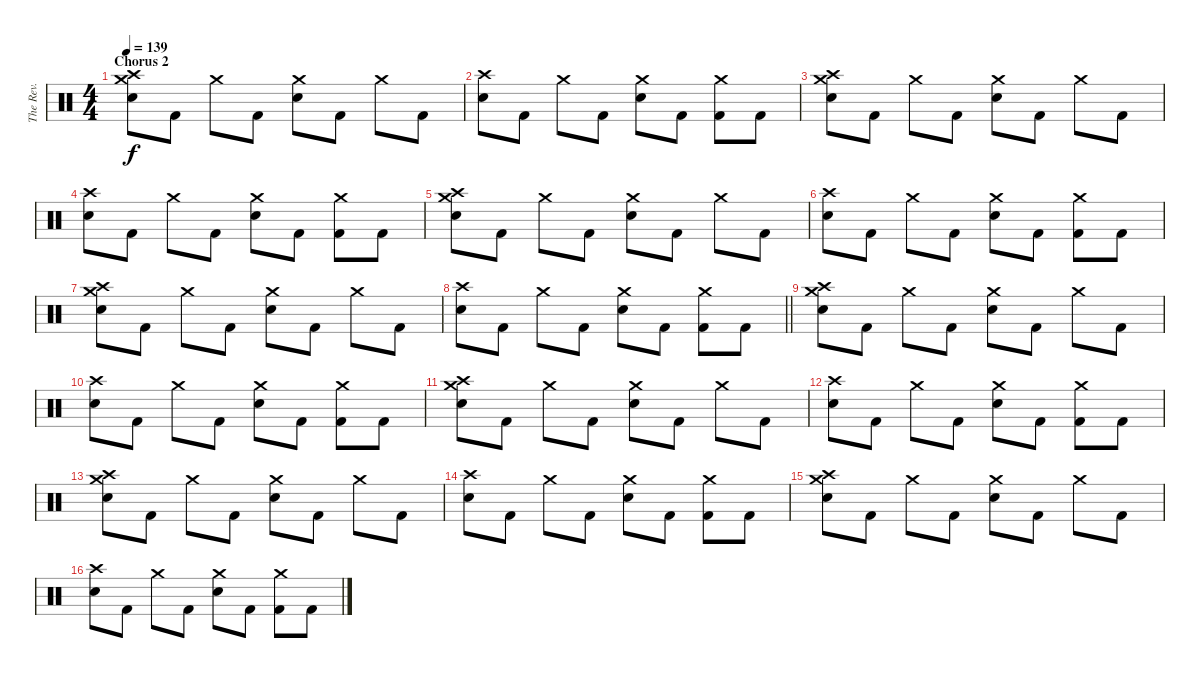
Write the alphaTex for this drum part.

\track ("The Rev." "The Rev.") {instrument percussion}
\staff {score}
\articulation defaults
\ts (4 4)
\section ("" "Chorus 2")
\tempo 139
\clef neutral
\ks c
("Crash high (hit)" "Crash medium (hit)" "Electric Snare (hit)").8{dy f} "Kick (hit) 2".8 "Crash medium (hit)".8 "Kick (hit) 2".8 ("Crash medium (hit)" "Electric Snare (hit)").8 "Kick (hit) 2".8 "Crash medium (hit)".8 "Kick (hit) 2".8 |
("Crash high (hit)" "Electric Snare (hit)").8 "Kick (hit) 2".8 "Crash medium (hit)".8 "Kick (hit) 2".8 ("Crash medium (hit)" "Electric Snare (hit)").8 "Kick (hit) 2".8 ("Crash medium (hit)" "Kick (hit) 2").8 "Kick (hit) 2".8 |
("Crash high (hit)" "Crash medium (hit)" "Electric Snare (hit)").8 "Kick (hit) 2".8 "Crash medium (hit)".8 "Kick (hit) 2".8 ("Crash medium (hit)" "Electric Snare (hit)").8 "Kick (hit) 2".8 "Crash medium (hit)".8 "Kick (hit) 2".8 |
("Crash high (hit)" "Electric Snare (hit)").8 "Kick (hit) 2".8 "Crash medium (hit)".8 "Kick (hit) 2".8 ("Crash medium (hit)" "Electric Snare (hit)").8 "Kick (hit) 2".8 ("Crash medium (hit)" "Kick (hit) 2").8 "Kick (hit) 2".8 |
("Crash high (hit)" "Crash medium (hit)" "Electric Snare (hit)").8 "Kick (hit) 2".8 "Crash medium (hit)".8 "Kick (hit) 2".8 ("Crash medium (hit)" "Electric Snare (hit)").8 "Kick (hit) 2".8 "Crash medium (hit)".8 "Kick (hit) 2".8 |
("Crash high (hit)" "Electric Snare (hit)").8 "Kick (hit) 2".8 "Crash medium (hit)".8 "Kick (hit) 2".8 ("Crash medium (hit)" "Electric Snare (hit)").8 "Kick (hit) 2".8 ("Crash medium (hit)" "Kick (hit) 2").8 "Kick (hit) 2".8 |
("Crash high (hit)" "Crash medium (hit)" "Electric Snare (hit)").8 "Kick (hit) 2".8 "Crash medium (hit)".8 "Kick (hit) 2".8 ("Crash medium (hit)" "Electric Snare (hit)").8 "Kick (hit) 2".8 "Crash medium (hit)".8 "Kick (hit) 2".8 |
\barLineRight lightlight
("Crash high (hit)" "Electric Snare (hit)").8 "Kick (hit) 2".8 "Crash medium (hit)".8 "Kick (hit) 2".8 ("Crash medium (hit)" "Electric Snare (hit)").8 "Kick (hit) 2".8 ("Crash medium (hit)" "Kick (hit) 2").8 "Kick (hit) 2".8 |
("Crash high (hit)" "Crash medium (hit)" "Electric Snare (hit)").8 "Kick (hit) 2".8 "Crash medium (hit)".8 "Kick (hit) 2".8 ("Crash medium (hit)" "Electric Snare (hit)").8 "Kick (hit) 2".8 "Crash medium (hit)".8 "Kick (hit) 2".8 |
("Crash high (hit)" "Electric Snare (hit)").8 "Kick (hit) 2".8 "Crash medium (hit)".8 "Kick (hit) 2".8 ("Crash medium (hit)" "Electric Snare (hit)").8 "Kick (hit) 2".8 ("Crash medium (hit)" "Kick (hit) 2").8 "Kick (hit) 2".8 |
("Crash high (hit)" "Crash medium (hit)" "Electric Snare (hit)").8 "Kick (hit) 2".8 "Crash medium (hit)".8 "Kick (hit) 2".8 ("Crash medium (hit)" "Electric Snare (hit)").8 "Kick (hit) 2".8 "Crash medium (hit)".8 "Kick (hit) 2".8 |
("Crash high (hit)" "Electric Snare (hit)").8 "Kick (hit) 2".8 "Crash medium (hit)".8 "Kick (hit) 2".8 ("Crash medium (hit)" "Electric Snare (hit)").8 "Kick (hit) 2".8 ("Crash medium (hit)" "Kick (hit) 2").8 "Kick (hit) 2".8 |
("Crash high (hit)" "Crash medium (hit)" "Electric Snare (hit)").8 "Kick (hit) 2".8 "Crash medium (hit)".8 "Kick (hit) 2".8 ("Crash medium (hit)" "Electric Snare (hit)").8 "Kick (hit) 2".8 "Crash medium (hit)".8 "Kick (hit) 2".8 |
("Crash high (hit)" "Electric Snare (hit)").8 "Kick (hit) 2".8 "Crash medium (hit)".8 "Kick (hit) 2".8 ("Crash medium (hit)" "Electric Snare (hit)").8 "Kick (hit) 2".8 ("Crash medium (hit)" "Kick (hit) 2").8 "Kick (hit) 2".8 |
("Crash high (hit)" "Crash medium (hit)" "Electric Snare (hit)").8 "Kick (hit) 2".8 "Crash medium (hit)".8 "Kick (hit) 2".8 ("Crash medium (hit)" "Electric Snare (hit)").8 "Kick (hit) 2".8 "Crash medium (hit)".8 "Kick (hit) 2".8 |
("Crash high (hit)" "Electric Snare (hit)").8 "Kick (hit) 2".8 "Crash medium (hit)".8 "Kick (hit) 2".8 ("Crash medium (hit)" "Electric Snare (hit)").8 "Kick (hit) 2".8 ("Crash medium (hit)" "Kick (hit) 2").8 "Kick (hit) 2".8
